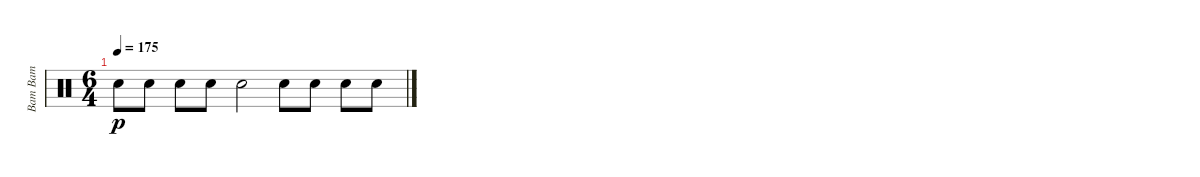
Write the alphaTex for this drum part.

\track ("Bam Bam" "Bam Bam") {instrument percussion}
\staff {score}
\articulation defaults
\ts (6 4)
\tempo 175
\clef neutral
\ks c "Electric Snare (hit)".8{dy p} "Electric Snare (hit)".8 "Electric Snare (hit)".8 "Electric Snare (hit)".8 "Electric Snare (hit)".2 "Electric Snare (hit)".8 "Electric Snare (hit)".8 "Electric Snare (hit)".8 "Electric Snare (hit)".8
